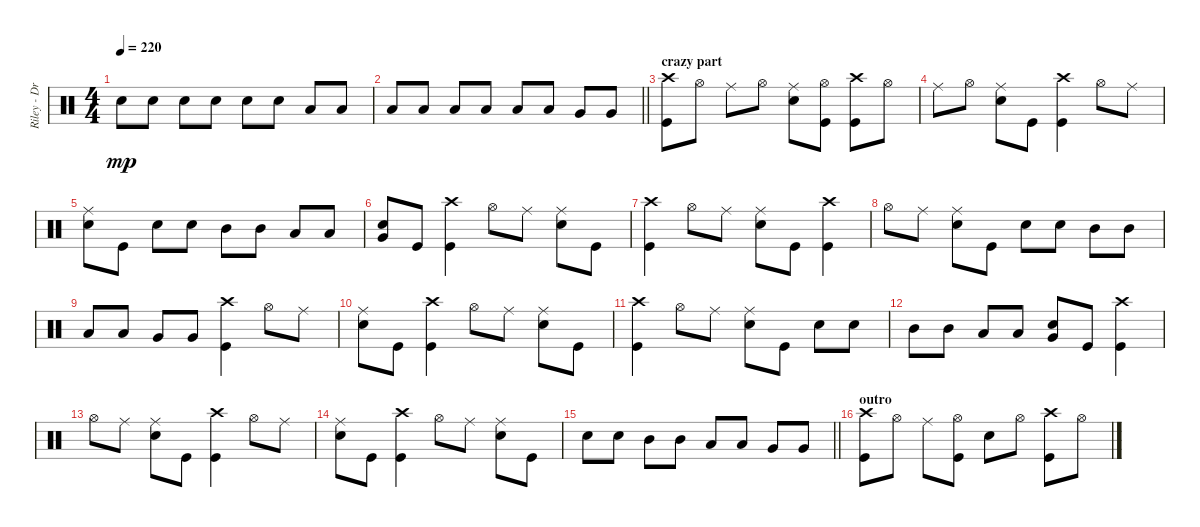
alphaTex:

\track ("Riley - Drums" "Riley - Dr") {instrument percussion}
\staff {score}
\articulation defaults
\ts (4 4)
\tempo 220
\clef neutral
\ks c "Electric Snare (hit)".8{dy mp} "Electric Snare (hit)".8 "Electric Snare (hit)".8 "Electric Snare (hit)".8 "Electric Snare (hit)".8 "Electric Snare (hit)".8 "Low Tom (hit)".8 "Low Tom (hit)".8
|
\barLineRight lightlight "Low Tom (hit)".8 "Low Tom (hit)".8 "Low Floor Tom (hit)".8 "Low Floor Tom (hit)".8 "Low Floor Tom (hit)".8 "Low Floor Tom (hit)".8 "Very Low Tom (hit)".8 "Very Low Tom (hit)".8
|
\section ("" "crazy part")
("Kick (hit)" "Crash high (hit)").8 "Hi-Hat (open)".8 "Ride (middle)".8 "Hi-Hat (open)".8 ("Electric Snare (hit)" "Ride (middle)").8 ("Kick (hit)" "Hi-Hat (open)").8 ("Kick (hit)" "Crash high (hit)").8 "Hi-Hat (open)".8 |
"Ride (middle)".8 "Hi-Hat (open)".8 ("Electric Snare (hit)" "Ride (middle)").8 "Kick (hit)".8 ("Kick (hit)" "Crash high (hit)").4 "Hi-Hat (open)".8 "Ride (middle)".8 |
("Electric Snare (hit)" "Ride (middle)").8 "Kick (hit)".8 "Electric Snare (hit)".8 "Electric Snare (hit)".8 "Mid Tom (hit)".8 "Mid Tom (hit)".8 "Low Tom (hit)".8 "Low Tom (hit)".8 |
("Electric Snare (hit)" "Very Low Tom (hit)").8 "Kick (hit)".8 ("Kick (hit)" "Crash high (hit)").4 "Hi-Hat (open)".8 "Ride (middle)".8 ("Electric Snare (hit)" "Ride (middle)").8 "Kick (hit)".8 |
("Kick (hit)" "Crash high (hit)").4 "Hi-Hat (open)".8 "Ride (middle)".8 ("Electric Snare (hit)" "Ride (middle)").8 "Kick (hit)".8 ("Kick (hit)" "Crash high (hit)").4 |
"Hi-Hat (open)".8 "Ride (middle)".8 ("Electric Snare (hit)" "Ride (middle)").8 "Kick (hit)".8 "Electric Snare (hit)".8 "Electric Snare (hit)".8 "Mid Tom (hit)".8 "Mid Tom (hit)".8 |
"Low Tom (hit)".8 "Low Tom (hit)".8 "Very Low Tom (hit)".8 "Very Low Tom (hit)".8 ("Kick (hit)" "Crash high (hit)").4 "Hi-Hat (open)".8 "Ride (middle)".8 |
("Electric Snare (hit)" "Ride (middle)").8 "Kick (hit)".8 ("Kick (hit)" "Crash high (hit)").4 "Hi-Hat (open)".8 "Ride (middle)".8 ("Electric Snare (hit)" "Ride (middle)").8 "Kick (hit)".8 |
("Kick (hit)" "Crash high (hit)").4 "Hi-Hat (open)".8 "Ride (middle)".8 ("Electric Snare (hit)" "Ride (middle)").8 "Kick (hit)".8 "Electric Snare (hit)".8 "Electric Snare (hit)".8 |
"Mid Tom (hit)".8 "Mid Tom (hit)".8 "Low Tom (hit)".8 "Low Tom (hit)".8 ("Electric Snare (hit)" "Very Low Tom (hit)").8 "Kick (hit)".8 ("Kick (hit)" "Crash high (hit)").4 |
"Hi-Hat (open)".8 "Ride (middle)".8 ("Electric Snare (hit)" "Ride (middle)").8 "Kick (hit)".8 ("Kick (hit)" "Crash high (hit)").4 "Hi-Hat (open)".8 "Ride (middle)".8 |
("Electric Snare (hit)" "Ride (middle)").8 "Kick (hit)".8 ("Kick (hit)" "Crash high (hit)").4 "Hi-Hat (open)".8 "Ride (middle)".8 ("Electric Snare (hit)" "Ride (middle)").8 "Kick (hit)".8 |
\barLineRight lightlight "Electric Snare (hit)".8 "Electric Snare (hit)".8 "Mid Tom (hit)".8 "Mid Tom (hit)".8 "Low Tom (hit)".8 "Low Tom (hit)".8 "Very Low Tom (hit)".8 "Very Low Tom (hit)".8
|
\section ("" "outro")
("Kick (hit)" "Crash high (hit)").8 "Hi-Hat (open)".8 "Ride (middle)".8 ("Kick (hit)" "Hi-Hat (open)").8 "Electric Snare (hit)".8 "Hi-Hat (open)".8 ("Kick (hit)" "Crash high (hit)").8 "Hi-Hat (open)".8
